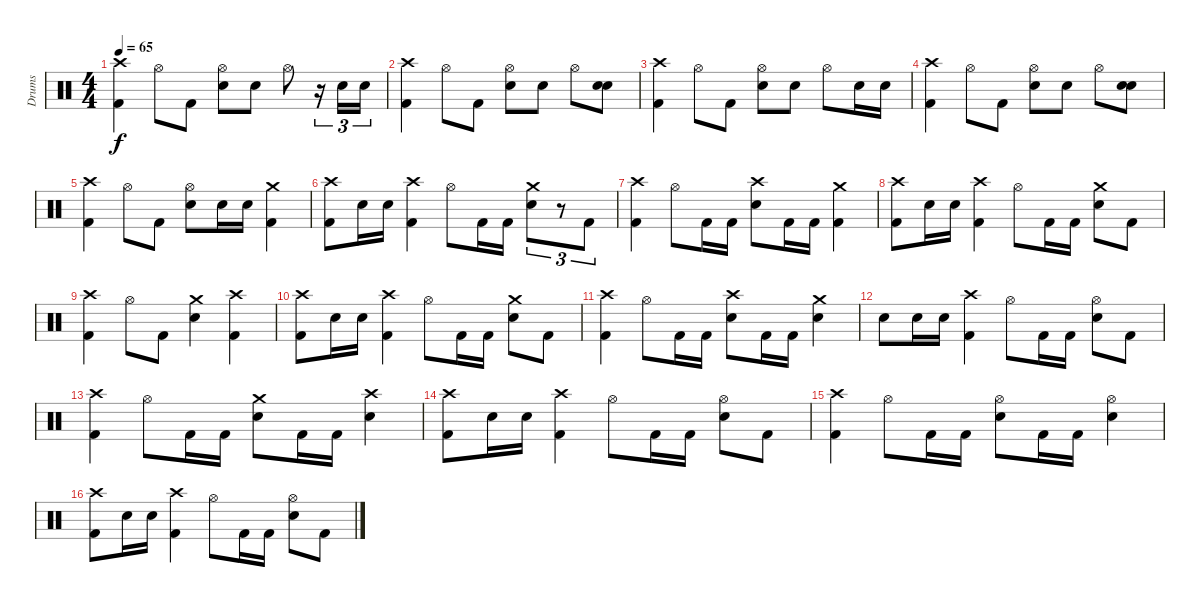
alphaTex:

\track ("Drums" "Drums") {instrument percussion}
\staff {score}
\articulation defaults
\ts (4 4)
\tempo 65
\clef neutral
\ks c
("Crash high (hit)" "Kick (hit) 2").4{dy f} "Hi-Hat (open)".8 "Kick (hit) 2".8 ("Hi-Hat (open)" "Electric Snare (hit)").8 "Electric Snare (hit)".8 "Hi-Hat (open)".8 r.16{tu (3 2)} "Electric Snare (hit)".16{tu (3 2)} "Electric Snare (hit)".16{tu (3 2)} |
("Crash high (hit)" "Kick (hit) 2").4 "Hi-Hat (open)".8 "Kick (hit) 2".8 ("Hi-Hat (open)" "Electric Snare (hit)").8 "Electric Snare (hit)".8 "Hi-Hat (open)".8 ("Electric Snare (hit)" "Electric Snare (hit)").8{bu 60} |
("Crash high (hit)" "Kick (hit) 2").4 "Hi-Hat (open)".8 "Kick (hit) 2".8 ("Hi-Hat (open)" "Electric Snare (hit)").8 "Electric Snare (hit)".8 "Hi-Hat (open)".8 "Electric Snare (hit)".16 "Electric Snare (hit)".16 |
("Crash high (hit)" "Kick (hit) 2").4 "Hi-Hat (open)".8 "Kick (hit) 2".8 ("Hi-Hat (open)" "Electric Snare (hit)").8 "Electric Snare (hit)".8 "Hi-Hat (open)".8 ("Electric Snare (hit)" "Electric Snare (hit)").8{bu 60} |
("Crash high (hit)" "Kick (hit) 2").4 "Hi-Hat (open)".8 "Kick (hit) 2".8 ("Hi-Hat (open)" "Electric Snare (hit)").8 "Electric Snare (hit)".16 "Electric Snare (hit)".16 ("Crash medium (hit)" "Kick (hit) 2").4 |
("Crash high (hit)" "Kick (hit) 2").8 "Electric Snare (hit)".16 "Electric Snare (hit)".16 ("Crash high (hit)" "Kick (hit) 2").4 "Hi-Hat (open)".8 "Kick (hit) 2".16 "Kick (hit) 2".16 ("Crash medium (hit)" "Electric Snare (hit)").8{tu (3 2)} r.8{tu (3 2)} "Kick (hit) 2".8{tu (3 2)} |
("Crash high (hit)" "Kick (hit) 2").4 "Hi-Hat (open)".8 "Kick (hit) 2".16 "Kick (hit) 2".16 ("Crash high (hit)" "Electric Snare (hit)").8 "Kick (hit) 2".16 "Kick (hit) 2".16 ("Crash medium (hit)" "Kick (hit) 2").4 |
("Crash high (hit)" "Kick (hit) 2").8 "Electric Snare (hit)".16 "Electric Snare (hit)".16 ("Crash high (hit)" "Kick (hit) 2").4 "Hi-Hat (open)".8 "Kick (hit) 2".16 "Kick (hit) 2".16 ("Crash medium (hit)" "Electric Snare (hit)").8 "Kick (hit) 2".8 |
("Crash high (hit)" "Kick (hit) 2").4 "Hi-Hat (open)".8 "Kick (hit) 2".8 ("Crash medium (hit)" "Electric Snare (hit)").4 ("Crash high (hit)" "Kick (hit) 2").4 |
("Crash high (hit)" "Kick (hit) 2").8 "Electric Snare (hit)".16 "Electric Snare (hit)".16 ("Crash high (hit)" "Kick (hit) 2").4 "Hi-Hat (open)".8 "Kick (hit) 2".16 "Kick (hit) 2".16 ("Crash medium (hit)" "Electric Snare (hit)").8 "Kick (hit) 2".8 |
("Crash high (hit)" "Kick (hit) 2").4 "Hi-Hat (open)".8 "Kick (hit) 2".16 "Kick (hit) 2".16 ("Crash high (hit)" "Electric Snare (hit)").8 "Kick (hit) 2".16 "Kick (hit) 2".16 ("Crash medium (hit)" "Electric Snare (hit)").4 |
"Electric Snare (hit)".8 "Electric Snare (hit)".16 "Electric Snare (hit)".16 ("Crash high (hit)" "Kick (hit) 2").4 "Hi-Hat (open)".8 "Kick (hit) 2".16 "Kick (hit) 2".16 ("Hi-Hat (open)" "Electric Snare (hit)").8 "Kick (hit) 2".8 |
("Crash high (hit)" "Kick (hit) 2").4 "Hi-Hat (open)".8 "Kick (hit) 2".16 "Kick (hit) 2".16 ("Crash medium (hit)" "Electric Snare (hit)").8 "Kick (hit) 2".16 "Kick (hit) 2".16 ("Crash high (hit)" "Electric Snare (hit)").4 |
("Crash high (hit)" "Kick (hit) 2").8 "Electric Snare (hit)".16 "Electric Snare (hit)".16 ("Crash high (hit)" "Kick (hit) 2").4 "Hi-Hat (open)".8 "Kick (hit) 2".16 "Kick (hit) 2".16 ("Hi-Hat (open)" "Electric Snare (hit)").8 "Kick (hit) 2".8 |
("Crash high (hit)" "Kick (hit) 2").4 "Hi-Hat (open)".8 "Kick (hit) 2".16 "Kick (hit) 2".16 ("Hi-Hat (open)" "Electric Snare (hit)").8 "Kick (hit) 2".16 "Kick (hit) 2".16 ("Hi-Hat (open)" "Electric Snare (hit)").4 |
("Crash high (hit)" "Kick (hit) 2").8 "Electric Snare (hit)".16 "Electric Snare (hit)".16 ("Crash high (hit)" "Kick (hit) 2").4 "Hi-Hat (open)".8 "Kick (hit) 2".16 "Kick (hit) 2".16 ("Hi-Hat (open)" "Electric Snare (hit)").8 "Kick (hit) 2".8
